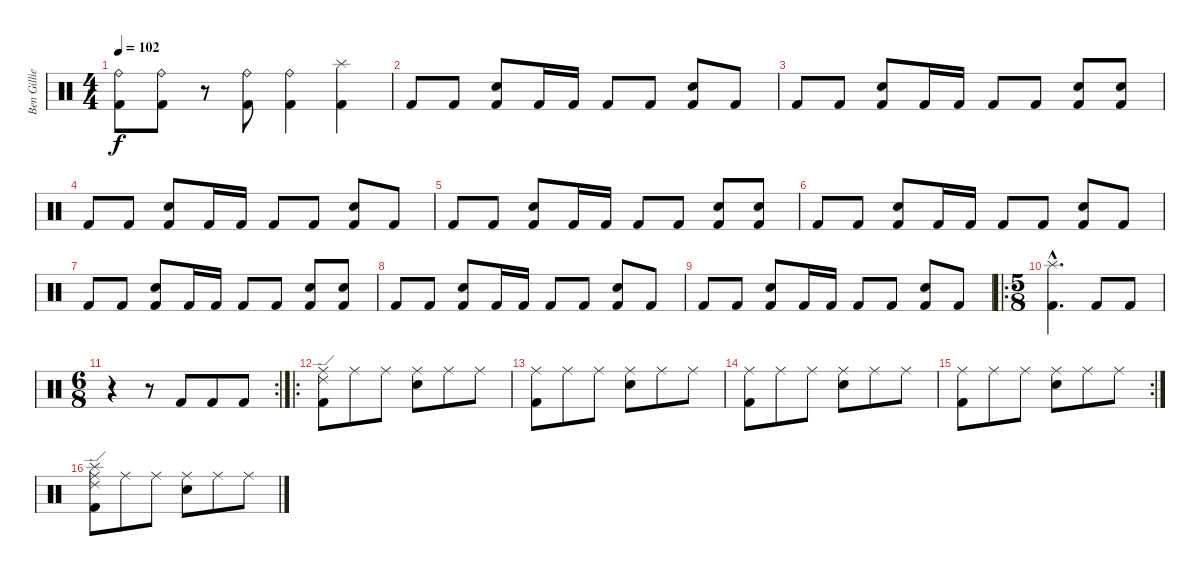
\track ("Ben Gillies" "Ben Gillie") {instrument percussion}
\staff {score}
\articulation defaults
\ts (4 4)
\tempo 102
\clef neutral
\ks c
("Ride (bell)" "Kick (hit) 2").8{dy f} ("Ride (bell)" "Kick (hit) 2").8 r.8 ("Ride (bell)" "Kick (hit) 2").8 ("Ride (bell)" "Kick (hit) 2").4 ("Splash (hit)" "Kick (hit) 2").4 |
"Kick (hit) 2".8 "Kick (hit) 2".8 ("Electric Snare (hit)" "Kick (hit) 2").8 "Kick (hit) 2".16 "Kick (hit) 2".16 "Kick (hit) 2".8 "Kick (hit) 2".8 ("Electric Snare (hit)" "Kick (hit) 2").8 "Kick (hit) 2".8 |
"Kick (hit) 2".8 "Kick (hit) 2".8 ("Electric Snare (hit)" "Kick (hit) 2").8 "Kick (hit) 2".16 "Kick (hit) 2".16 "Kick (hit) 2".8 "Kick (hit) 2".8 ("Electric Snare (hit)" "Kick (hit) 2").8 ("Electric Snare (hit)" "Kick (hit) 2").8 |
"Kick (hit) 2".8 "Kick (hit) 2".8 ("Electric Snare (hit)" "Kick (hit) 2").8 "Kick (hit) 2".16 "Kick (hit) 2".16 "Kick (hit) 2".8 "Kick (hit) 2".8 ("Electric Snare (hit)" "Kick (hit) 2").8 "Kick (hit) 2".8 |
"Kick (hit) 2".8 "Kick (hit) 2".8 ("Electric Snare (hit)" "Kick (hit) 2").8 "Kick (hit) 2".16 "Kick (hit) 2".16 "Kick (hit) 2".8 "Kick (hit) 2".8 ("Electric Snare (hit)" "Kick (hit) 2").8 ("Electric Snare (hit)" "Kick (hit) 2").8 |
"Kick (hit) 2".8 "Kick (hit) 2".8 ("Electric Snare (hit)" "Kick (hit) 2").8 "Kick (hit) 2".16 "Kick (hit) 2".16 "Kick (hit) 2".8 "Kick (hit) 2".8 ("Electric Snare (hit)" "Kick (hit) 2").8 "Kick (hit) 2".8 |
"Kick (hit) 2".8 "Kick (hit) 2".8 ("Electric Snare (hit)" "Kick (hit) 2").8 "Kick (hit) 2".16 "Kick (hit) 2".16 "Kick (hit) 2".8 "Kick (hit) 2".8 ("Electric Snare (hit)" "Kick (hit) 2").8 ("Electric Snare (hit)" "Kick (hit) 2").8 |
"Kick (hit) 2".8 "Kick (hit) 2".8 ("Electric Snare (hit)" "Kick (hit) 2").8 "Kick (hit) 2".16 "Kick (hit) 2".16 "Kick (hit) 2".8 "Kick (hit) 2".8 ("Electric Snare (hit)" "Kick (hit) 2").8 "Kick (hit) 2".8 |
"Kick (hit) 2".8 "Kick (hit) 2".8 ("Electric Snare (hit)" "Kick (hit) 2").8 "Kick (hit) 2".16 "Kick (hit) 2".16 "Kick (hit) 2".8 "Kick (hit) 2".8 ("Electric Snare (hit)" "Kick (hit) 2").8 "Kick (hit) 2".8 |
\ro
\ts (5 8)
("Splash (hit)"{hac} "Kick (hit) 2"{hac}).4{d} "Kick (hit) 2".8 "Kick (hit) 2".8 |
\rc 2
\ts (6 8)
r.4 r.8 "Kick (hit) 2".8 "Kick (hit) 2".8 "Kick (hit) 2".8 |
\ro
("Ride (edge) 2" "Ride (middle)" "Kick (hit) 2").8 "Ride (middle)".8 "Ride (middle)".8 ("Ride (middle)" "Electric Snare (hit)").8 "Ride (middle)".8 "Ride (middle)".8 |
("Ride (middle)" "Kick (hit) 2").8 "Ride (middle)".8 "Ride (middle)".8 ("Ride (middle)" "Electric Snare (hit)").8 "Ride (middle)".8 "Ride (middle)".8 |
("Ride (middle)" "Kick (hit) 2").8 "Ride (middle)".8 "Ride (middle)".8 ("Ride (middle)" "Electric Snare (hit)").8 "Ride (middle)".8 "Ride (middle)".8 |
\rc 2
("Ride (middle)" "Kick (hit) 2").8 "Ride (middle)".8 "Ride (middle)".8 ("Ride (middle)" "Electric Snare (hit)").8 "Ride (middle)".8 "Ride (middle)".8 |
("Ride (edge) 2" "Splash (hit)" "Ride (middle)" "Kick (hit) 2").8 "Ride (middle)".8 "Ride (middle)".8 ("Ride (middle)" "Electric Snare (hit)").8 "Ride (middle)".8 "Ride (middle)".8
